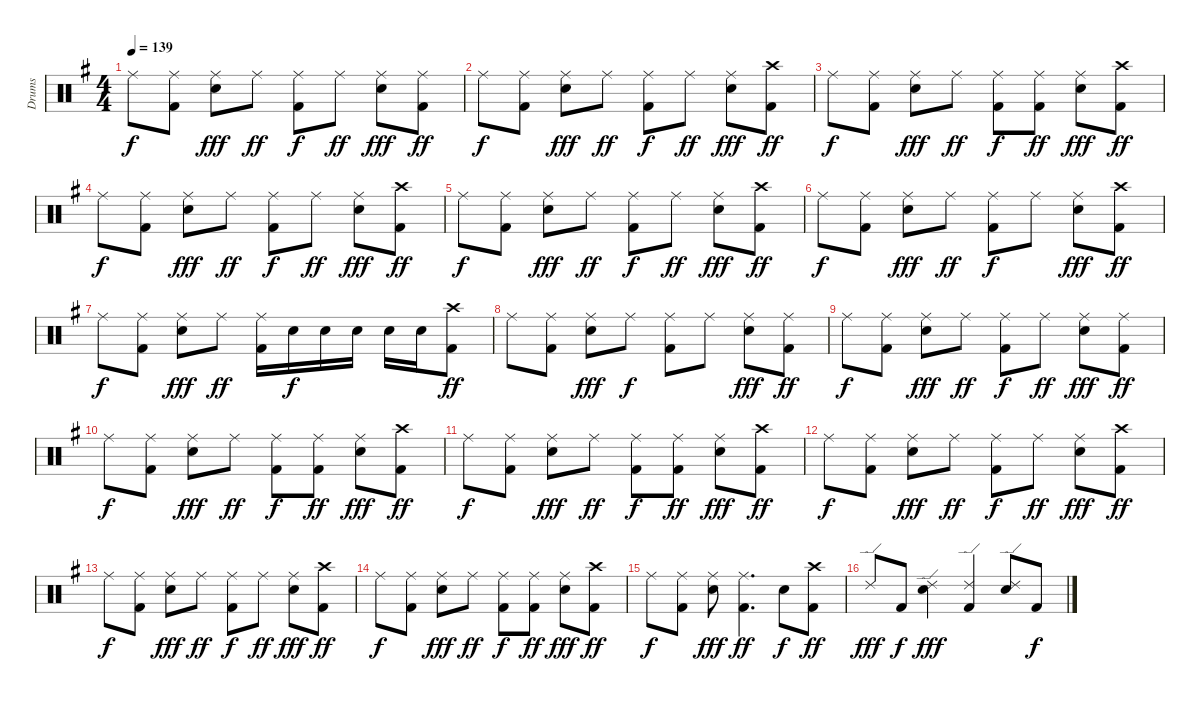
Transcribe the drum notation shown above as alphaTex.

\track ("Drums" "Drums") {instrument percussion}
\staff {score}
\articulation defaults
\ts (4 4)
\tempo 139
\clef neutral
\ks g "Ride (middle)".8{dy f}
("Ride (middle)" "Kick (hit) 2").8 ("Ride (middle)" "Snare (hit) 2").8{dy fff} "Ride (middle)".8{dy ff} ("Ride (middle)" "Kick (hit) 2").8{dy f} "Ride (middle)".8{dy ff} ("Ride (middle)" "Snare (hit) 2").8{dy fff} ("Ride (middle)" "Kick (hit) 2").8{dy ff} |
"Ride (middle)".8{dy f} ("Ride (middle)" "Kick (hit) 2").8 ("Ride (middle)" "Snare (hit) 2").8{dy fff} "Ride (middle)".8{dy ff} ("Ride (middle)" "Kick (hit) 2").8{dy f} "Ride (middle)".8{dy ff} ("Ride (middle)" "Snare (hit) 2").8{dy fff} ("Crash high (hit)" "Kick (hit) 2").8{dy ff} |
"Ride (middle)".8{dy f} ("Ride (middle)" "Kick (hit) 2").8 ("Ride (middle)" "Snare (hit) 2").8{dy fff} "Ride (middle)".8{dy ff} ("Ride (middle)" "Kick (hit) 2").8{dy f} ("Ride (middle)" "Kick (hit) 2").8{dy ff} ("Ride (middle)" "Snare (hit) 2").8{dy fff} ("Crash high (hit)" "Kick (hit) 2").8{dy ff} |
"Ride (middle)".8{dy f} ("Ride (middle)" "Kick (hit) 2").8 ("Ride (middle)" "Snare (hit) 2").8{dy fff} "Ride (middle)".8{dy ff} ("Ride (middle)" "Kick (hit) 2").8{dy f} "Ride (middle)".8{dy ff} ("Ride (middle)" "Snare (hit) 2").8{dy fff} ("Crash high (hit)" "Kick (hit) 2").8{dy ff} |
"Ride (middle)".8{dy f} ("Ride (middle)" "Kick (hit) 2").8 ("Ride (middle)" "Snare (hit) 2").8{dy fff} "Ride (middle)".8{dy ff} ("Ride (middle)" "Kick (hit) 2").8{dy f} "Ride (middle)".8{dy ff} ("Ride (middle)" "Snare (hit) 2").8{dy fff} ("Crash high (hit)" "Kick (hit) 2").8{dy ff} |
"Ride (middle)".8{dy f} ("Ride (middle)" "Kick (hit) 2").8 ("Ride (middle)" "Snare (hit) 2").8{dy fff} "Ride (middle)".8{dy ff} ("Ride (middle)" "Kick (hit) 2").8{dy f} "Ride (middle)".8 ("Ride (middle)" "Snare (hit) 2").8{dy fff} ("Crash high (hit)" "Kick (hit) 2").8{dy ff} |
"Ride (middle)".8{dy f} ("Ride (middle)" "Kick (hit) 2").8 ("Ride (middle)" "Snare (hit) 2").8{dy fff} "Ride (middle)".8{dy ff} ("Ride (middle)" "Kick (hit) 2").16 "Snare (hit) 2".16{dy f} "Snare (hit) 2".16 "Snare (hit) 2".16 "Snare (hit) 2".16 "Snare (hit) 2".16 ("Crash high (hit)" "Kick (hit) 2").8{dy ff} |
"Ride (middle)".8 ("Ride (middle)" "Kick (hit) 2").8 ("Ride (middle)" "Snare (hit) 2").8{dy fff} "Ride (middle)".8{dy f} ("Ride (middle)" "Kick (hit) 2").8 "Ride (middle)".8 ("Ride (middle)" "Snare (hit) 2").8{dy fff} ("Ride (middle)" "Kick (hit) 2").8{dy ff} |
"Ride (middle)".8{dy f} ("Ride (middle)" "Kick (hit) 2").8 ("Ride (middle)" "Snare (hit) 2").8{dy fff} "Ride (middle)".8{dy ff} ("Ride (middle)" "Kick (hit) 2").8{dy f} "Ride (middle)".8{dy ff} ("Ride (middle)" "Snare (hit) 2").8{dy fff} ("Ride (middle)" "Kick (hit) 2").8{dy ff} |
"Ride (middle)".8{dy f} ("Ride (middle)" "Kick (hit) 2").8 ("Ride (middle)" "Snare (hit) 2").8{dy fff} "Ride (middle)".8{dy ff} ("Ride (middle)" "Kick (hit) 2").8{dy f} ("Ride (middle)" "Kick (hit) 2").8{dy ff} ("Ride (middle)" "Snare (hit) 2").8{dy fff} ("Crash high (hit)" "Kick (hit) 2").8{dy ff} |
"Ride (middle)".8{dy f} ("Ride (middle)" "Kick (hit) 2").8 ("Ride (middle)" "Snare (hit) 2").8{dy fff} "Ride (middle)".8{dy ff} ("Ride (middle)" "Kick (hit) 2").8{dy f} ("Ride (middle)" "Kick (hit) 2").8{dy ff} ("Ride (middle)" "Snare (hit) 2").8{dy fff} ("Crash high (hit)" "Kick (hit) 2").8{dy ff} |
"Ride (middle)".8{dy f} ("Ride (middle)" "Kick (hit) 2").8 ("Ride (middle)" "Snare (hit) 2").8{dy fff} "Ride (middle)".8{dy ff} ("Ride (middle)" "Kick (hit) 2").8{dy f} "Ride (middle)".8{dy ff} ("Ride (middle)" "Snare (hit) 2").8{dy fff} ("Crash high (hit)" "Kick (hit) 2").8{dy ff} |
"Ride (middle)".8{dy f} ("Ride (middle)" "Kick (hit) 2").8 ("Ride (middle)" "Snare (hit) 2").8{dy fff} "Ride (middle)".8{dy ff} ("Ride (middle)" "Kick (hit) 2").8{dy f} "Ride (middle)".8{dy ff} ("Ride (middle)" "Snare (hit) 2").8{dy fff} ("Crash high (hit)" "Kick (hit) 2").8{dy ff} |
"Ride (middle)".8{dy f} ("Ride (middle)" "Kick (hit) 2").8 ("Ride (middle)" "Snare (hit) 2").8{dy fff} "Ride (middle)".8{dy ff} ("Ride (middle)" "Kick (hit) 2").8{dy f} ("Ride (middle)" "Kick (hit) 2").8{dy ff} ("Ride (middle)" "Snare (hit) 2").8{dy fff} ("Crash high (hit)" "Kick (hit) 2").8{dy ff} |
"Ride (middle)".8{dy f} ("Ride (middle)" "Kick (hit) 2").8 ("Ride (middle)" "Snare (hit) 2").8{dy fff} ("Ride (middle)" "Kick (hit) 2").4{d dy ff} "Snare (hit) 2".8{dy f} ("Crash high (hit)" "Kick (hit) 2").8{dy ff} |
"Ride (edge) 2".8{dy fff} "Kick (hit) 2".8{dy f} ("Ride (edge) 2" "Snare (hit) 2").4{dy fff} ("Ride (edge) 2" "Kick (hit) 2").4 ("Ride (edge) 2" "Snare (hit) 2").8 "Kick (hit) 2".8{dy f}
